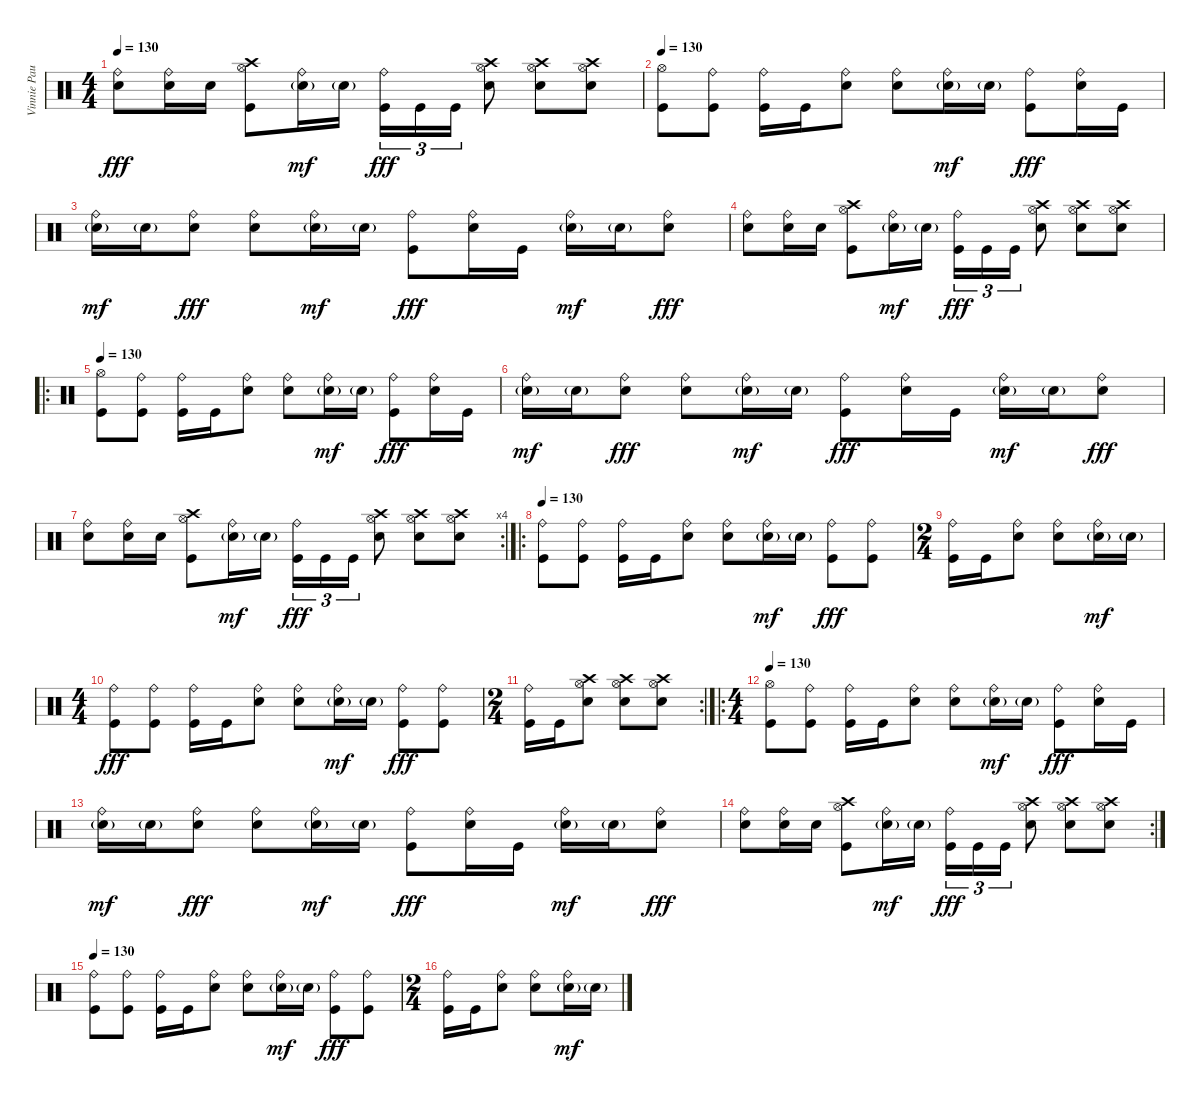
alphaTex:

\track ("Vinnie Paul" "Vinnie Pau") {instrument percussion}
\staff {score}
\articulation defaults
\ts (4 4)
\tempo 130
\clef neutral
\ks c
("Electric Snare (hit)" "Ride (bell)").8{dy fff} ("Electric Snare (hit)" "Ride (bell)").16 "Electric Snare (hit)".16 ("Kick (hit)" "Crash high (hit)" "Hi-Hat (open)").8 ("Electric Snare (hit)"{g} "Ride (bell)").16{dy mf} "Electric Snare (hit)"{g}.16 ("Kick (hit)" "Ride (bell)").16{tu (3 2) dy fff} "Kick (hit)".16{tu (3 2)} "Kick (hit)".16{tu (3 2)} ("Electric Snare (hit)" "Crash high (hit)" "Hi-Hat (open)").8 ("Electric Snare (hit)" "Crash high (hit)" "Hi-Hat (open)").8 ("Electric Snare (hit)" "Crash high (hit)" "Hi-Hat (open)").8 |
\tempo 130
("Kick (hit)" "Hi-Hat (open)").8 ("Kick (hit)" "Ride (bell)").8 ("Kick (hit)" "Ride (bell)").16 "Kick (hit)".16 ("Electric Snare (hit)" "Ride (bell)").8 ("Electric Snare (hit)" "Ride (bell)").8 ("Electric Snare (hit)"{g} "Ride (bell)").16{dy mf} "Electric Snare (hit)"{g}.16 ("Kick (hit)" "Ride (bell)").8{dy fff} ("Electric Snare (hit)" "Ride (bell)").16 "Kick (hit)".16 |
("Electric Snare (hit)"{g} "Ride (bell)").16{dy mf} "Electric Snare (hit)"{g}.16 ("Electric Snare (hit)" "Ride (bell)").8{dy fff} ("Electric Snare (hit)" "Ride (bell)").8 ("Electric Snare (hit)"{g} "Ride (bell)").16{dy mf} "Electric Snare (hit)"{g}.16 ("Kick (hit)" "Ride (bell)").8{dy fff} ("Electric Snare (hit)" "Ride (bell)").16 "Kick (hit)".16 ("Electric Snare (hit)"{g} "Ride (bell)").16{dy mf} "Electric Snare (hit)"{g}.16 ("Electric Snare (hit)" "Ride (bell)").8{dy fff} |
("Electric Snare (hit)" "Ride (bell)").8 ("Electric Snare (hit)" "Ride (bell)").16 "Electric Snare (hit)".16 ("Kick (hit)" "Crash high (hit)" "Hi-Hat (open)").8 ("Electric Snare (hit)"{g} "Ride (bell)").16{dy mf} "Electric Snare (hit)"{g}.16 ("Kick (hit)" "Ride (bell)").16{tu (3 2) dy fff} "Kick (hit)".16{tu (3 2)} "Kick (hit)".16{tu (3 2)} ("Electric Snare (hit)" "Crash high (hit)" "Hi-Hat (open)").8 ("Electric Snare (hit)" "Crash high (hit)" "Hi-Hat (open)").8 ("Electric Snare (hit)" "Crash high (hit)" "Hi-Hat (open)").8 |
\ro
\tempo 130
("Kick (hit)" "Hi-Hat (open)").8 ("Kick (hit)" "Ride (bell)").8 ("Kick (hit)" "Ride (bell)").16 "Kick (hit)".16 ("Electric Snare (hit)" "Ride (bell)").8 ("Electric Snare (hit)" "Ride (bell)").8 ("Electric Snare (hit)"{g} "Ride (bell)").16{dy mf} "Electric Snare (hit)"{g}.16 ("Kick (hit)" "Ride (bell)").8{dy fff} ("Electric Snare (hit)" "Ride (bell)").16 "Kick (hit)".16 |
("Electric Snare (hit)"{g} "Ride (bell)").16{dy mf} "Electric Snare (hit)"{g}.16 ("Electric Snare (hit)" "Ride (bell)").8{dy fff} ("Electric Snare (hit)" "Ride (bell)").8 ("Electric Snare (hit)"{g} "Ride (bell)").16{dy mf} "Electric Snare (hit)"{g}.16 ("Kick (hit)" "Ride (bell)").8{dy fff} ("Electric Snare (hit)" "Ride (bell)").16 "Kick (hit)".16 ("Electric Snare (hit)"{g} "Ride (bell)").16{dy mf} "Electric Snare (hit)"{g}.16 ("Electric Snare (hit)" "Ride (bell)").8{dy fff} |
\rc 4
("Electric Snare (hit)" "Ride (bell)").8 ("Electric Snare (hit)" "Ride (bell)").16 "Electric Snare (hit)".16 ("Kick (hit)" "Crash high (hit)" "Hi-Hat (open)").8 ("Electric Snare (hit)"{g} "Ride (bell)").16{dy mf} "Electric Snare (hit)"{g}.16 ("Kick (hit)" "Ride (bell)").16{tu (3 2) dy fff} "Kick (hit)".16{tu (3 2)} "Kick (hit)".16{tu (3 2)} ("Electric Snare (hit)" "Crash high (hit)" "Hi-Hat (open)").8 ("Electric Snare (hit)" "Crash high (hit)" "Hi-Hat (open)").8 ("Electric Snare (hit)" "Crash high (hit)" "Hi-Hat (open)").8 |
\ro
\tempo 130
("Kick (hit)" "Ride (bell)").8 ("Kick (hit)" "Ride (bell)").8 ("Kick (hit)" "Ride (bell)").16 "Kick (hit)".16 ("Electric Snare (hit)" "Ride (bell)").8 ("Electric Snare (hit)" "Ride (bell)").8 ("Electric Snare (hit)"{g} "Ride (bell)").16{dy mf} "Electric Snare (hit)"{g}.16 ("Kick (hit)" "Ride (bell)").8{dy fff} ("Kick (hit)" "Ride (bell)").8 |
\ts (2 4)
("Kick (hit)" "Ride (bell)").16 "Kick (hit)".16 ("Electric Snare (hit)" "Ride (bell)").8 ("Electric Snare (hit)" "Ride (bell)").8 ("Electric Snare (hit)"{g} "Ride (bell)").16{dy mf} "Electric Snare (hit)"{g}.16 |
\ts (4 4)
("Kick (hit)" "Ride (bell)").8{dy fff} ("Kick (hit)" "Ride (bell)").8 ("Kick (hit)" "Ride (bell)").16 "Kick (hit)".16 ("Electric Snare (hit)" "Ride (bell)").8 ("Electric Snare (hit)" "Ride (bell)").8 ("Electric Snare (hit)"{g} "Ride (bell)").16{dy mf} "Electric Snare (hit)"{g}.16 ("Kick (hit)" "Ride (bell)").8{dy fff} ("Kick (hit)" "Ride (bell)").8 |
\rc 2
\ts (2 4)
("Kick (hit)" "Ride (bell)").16 "Kick (hit)".16 ("Electric Snare (hit)" "Crash high (hit)" "Hi-Hat (open)").8 ("Electric Snare (hit)" "Crash high (hit)" "Hi-Hat (open)").8 ("Electric Snare (hit)" "Crash high (hit)" "Hi-Hat (open)").8 |
\ro
\ts (4 4)
\tempo 130
("Kick (hit)" "Hi-Hat (open)").8 ("Kick (hit)" "Ride (bell)").8 ("Kick (hit)" "Ride (bell)").16 "Kick (hit)".16 ("Electric Snare (hit)" "Ride (bell)").8 ("Electric Snare (hit)" "Ride (bell)").8 ("Electric Snare (hit)"{g} "Ride (bell)").16{dy mf} "Electric Snare (hit)"{g}.16 ("Kick (hit)" "Ride (bell)").8{dy fff} ("Electric Snare (hit)" "Ride (bell)").16 "Kick (hit)".16 |
("Electric Snare (hit)"{g} "Ride (bell)").16{dy mf} "Electric Snare (hit)"{g}.16 ("Electric Snare (hit)" "Ride (bell)").8{dy fff} ("Electric Snare (hit)" "Ride (bell)").8 ("Electric Snare (hit)"{g} "Ride (bell)").16{dy mf} "Electric Snare (hit)"{g}.16 ("Kick (hit)" "Ride (bell)").8{dy fff} ("Electric Snare (hit)" "Ride (bell)").16 "Kick (hit)".16 ("Electric Snare (hit)"{g} "Ride (bell)").16{dy mf} "Electric Snare (hit)"{g}.16 ("Electric Snare (hit)" "Ride (bell)").8{dy fff} |
\rc 2
("Electric Snare (hit)" "Ride (bell)").8 ("Electric Snare (hit)" "Ride (bell)").16 "Electric Snare (hit)".16 ("Kick (hit)" "Crash high (hit)" "Hi-Hat (open)").8 ("Electric Snare (hit)"{g} "Ride (bell)").16{dy mf} "Electric Snare (hit)"{g}.16 ("Kick (hit)" "Ride (bell)").16{tu (3 2) dy fff} "Kick (hit)".16{tu (3 2)} "Kick (hit)".16{tu (3 2)} ("Electric Snare (hit)" "Crash high (hit)" "Hi-Hat (open)").8 ("Electric Snare (hit)" "Crash high (hit)" "Hi-Hat (open)").8 ("Electric Snare (hit)" "Crash high (hit)" "Hi-Hat (open)").8 |
\tempo 130
("Kick (hit)" "Ride (bell)").8 ("Kick (hit)" "Ride (bell)").8 ("Kick (hit)" "Ride (bell)").16 "Kick (hit)".16 ("Electric Snare (hit)" "Ride (bell)").8 ("Electric Snare (hit)" "Ride (bell)").8 ("Electric Snare (hit)"{g} "Ride (bell)").16{dy mf} "Electric Snare (hit)"{g}.16 ("Kick (hit)" "Ride (bell)").8{dy fff} ("Kick (hit)" "Ride (bell)").8 |
\ts (2 4)
("Kick (hit)" "Ride (bell)").16 "Kick (hit)".16 ("Electric Snare (hit)" "Ride (bell)").8 ("Electric Snare (hit)" "Ride (bell)").8 ("Electric Snare (hit)"{g} "Ride (bell)").16{dy mf} "Electric Snare (hit)"{g}.16
